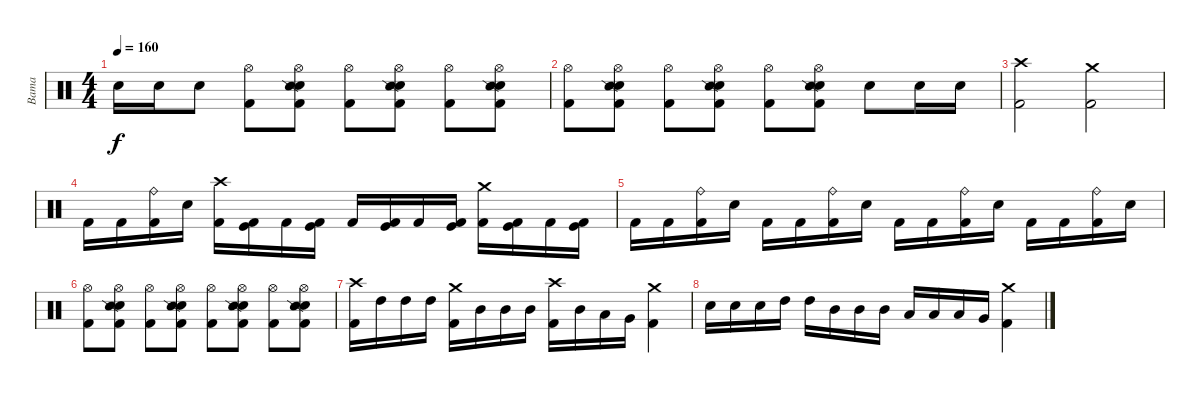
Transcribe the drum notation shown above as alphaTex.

\track ("Bama" "Bama") {instrument percussion}
\staff {score}
\articulation defaults
\ts (4 4)
\tempo 160
\clef neutral
\ks c "Electric Snare (hit)".16{dy f} "Electric Snare (hit)".16 "Electric Snare (hit)".8
("Hi-Hat (open)" "Kick (hit) 2").8 ("Hi-Hat (open)" "Electric Snare (hit)" "Snare (side stick) 2" "Kick (hit) 2").8 ("Hi-Hat (open)" "Kick (hit) 2").8 ("Hi-Hat (open)" "Electric Snare (hit)" "Snare (side stick) 2" "Kick (hit) 2").8 ("Hi-Hat (open)" "Kick (hit) 2").8 ("Hi-Hat (open)" "Electric Snare (hit)" "Snare (side stick) 2" "Kick (hit) 2").8 |
("Hi-Hat (open)" "Kick (hit) 2").8 ("Hi-Hat (open)" "Electric Snare (hit)" "Snare (side stick) 2" "Kick (hit) 2").8 ("Hi-Hat (open)" "Kick (hit) 2").8 ("Hi-Hat (open)" "Electric Snare (hit)" "Snare (side stick) 2" "Kick (hit) 2").8 ("Hi-Hat (open)" "Kick (hit) 2").8 ("Hi-Hat (open)" "Electric Snare (hit)" "Snare (side stick) 2" "Kick (hit) 2").8 "Electric Snare (hit)".8 "Electric Snare (hit)".16 "Electric Snare (hit)".16 |
("Crash high (hit)" "Kick (hit) 2").2 ("Crash medium (hit)" "Kick (hit) 2").2 |
"Kick (hit) 2".16 "Kick (hit) 2".16 ("Ride (bell)" "Kick (hit) 2").16 "Electric Snare (hit)".16 ("Crash high (hit)" "Kick (hit) 2").16 ("Kick (hit)" "Kick (hit) 2").16 "Kick (hit) 2".16 ("Kick (hit)" "Kick (hit) 2").16 "Kick (hit) 2".16 ("Kick (hit)" "Kick (hit) 2").16 "Kick (hit) 2".16 ("Kick (hit)" "Kick (hit) 2").16 ("Crash medium (hit)" "Kick (hit) 2").16 ("Kick (hit)" "Kick (hit) 2").16 "Kick (hit) 2".16 ("Kick (hit)" "Kick (hit) 2").16 |
"Kick (hit) 2".16 "Kick (hit) 2".16 ("Ride (bell)" "Kick (hit) 2").16 "Electric Snare (hit)".16 "Kick (hit) 2".16 "Kick (hit) 2".16 ("Ride (bell)" "Kick (hit) 2").16 "Electric Snare (hit)".16 "Kick (hit) 2".16 "Kick (hit) 2".16 ("Ride (bell)" "Kick (hit) 2").16 "Electric Snare (hit)".16 "Kick (hit) 2".16 "Kick (hit) 2".16 ("Ride (bell)" "Kick (hit) 2").16 "Electric Snare (hit)".16 |
("Hi-Hat (open)" "Kick (hit) 2").8 ("Hi-Hat (open)" "Electric Snare (hit)" "Snare (side stick) 2" "Kick (hit) 2").8 ("Hi-Hat (open)" "Kick (hit) 2").8 ("Hi-Hat (open)" "Electric Snare (hit)" "Snare (side stick) 2" "Kick (hit) 2").8 ("Hi-Hat (open)" "Kick (hit) 2").8 ("Hi-Hat (open)" "Electric Snare (hit)" "Snare (side stick) 2" "Kick (hit) 2").8 ("Hi-Hat (open)" "Kick (hit) 2").8 ("Hi-Hat (open)" "Electric Snare (hit)" "Snare (side stick) 2" "Kick (hit) 2").8 |
("Crash high (hit)" "Kick (hit) 2").16 "High Tom (hit)".16 "High Tom (hit)".16 "High Tom (hit)".16 ("Crash medium (hit)" "Kick (hit) 2").16 "Mid Tom (hit)".16 "Mid Tom (hit)".16 "Mid Tom (hit)".16 ("Crash high (hit)" "Kick (hit) 2").16 "Mid Tom (hit)".16 "Low Tom (hit)".16 "Very Low Tom (hit)".16 ("Crash medium (hit)" "Kick (hit) 2").4 |
"Electric Snare (hit)".16 "Electric Snare (hit)".16 "Electric Snare (hit)".16 "High Tom (hit)".16 "High Tom (hit)".16 "Mid Tom (hit)".16 "Mid Tom (hit)".16 "Mid Tom (hit)".16 "Low Tom (hit)".16 "Low Tom (hit)".16 "Low Tom (hit)".16 "Very Low Tom (hit)".16 ("Crash medium (hit)" "Kick (hit) 2").4
